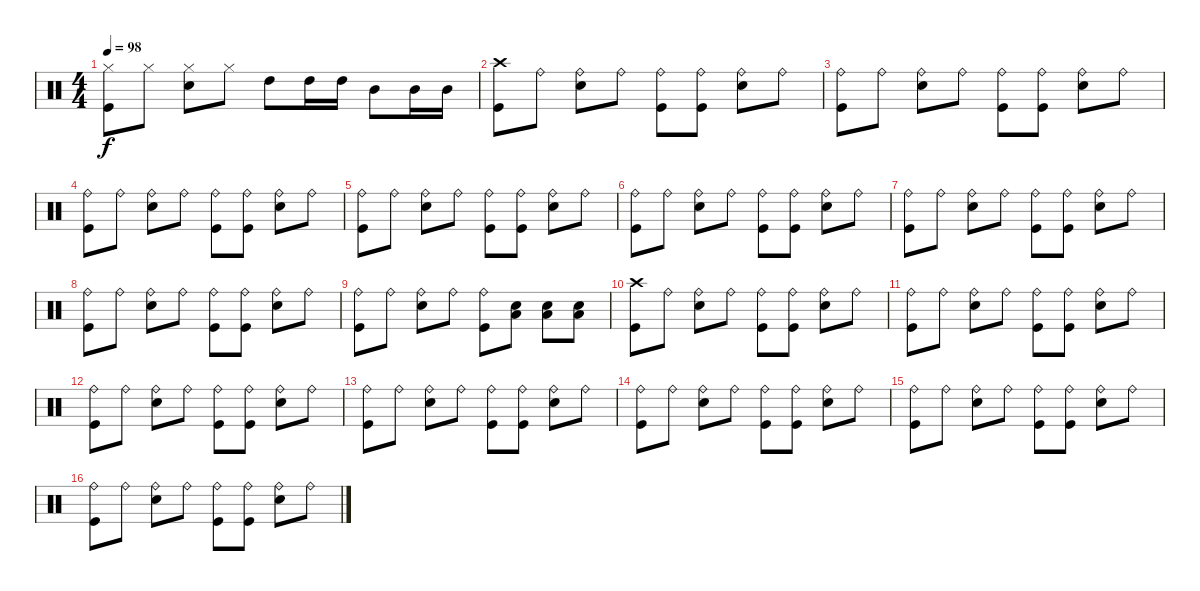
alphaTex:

\track "" {instrument percussion}
\staff {score}
\articulation defaults
\ts (4 4)
\tempo 98
\clef neutral
\ks c
("Hi-Hat (closed)" "Kick (hit)").8{dy f} "Hi-Hat (closed)".8 ("Hi-Hat (closed)" "Snare (hit) 2").8 "Hi-Hat (closed)".8 "High Tom (hit)".8 "High Tom (hit)".16 "High Tom (hit)".16 "Mid Tom (hit)".8 "Mid Tom (hit)".16 "Mid Tom (hit)".16 |
("Crash high (hit)" "Kick (hit)").8 "Ride (bell)".8 ("Ride (bell)" "Snare (hit) 2").8 "Ride (bell)".8 ("Ride (bell)" "Kick (hit)").8 ("Ride (bell)" "Kick (hit)").8 ("Ride (bell)" "Snare (hit) 2").8 "Ride (bell)".8 |
("Ride (bell)" "Kick (hit)").8 "Ride (bell)".8 ("Ride (bell)" "Snare (hit) 2").8 "Ride (bell)".8 ("Ride (bell)" "Kick (hit)").8 ("Ride (bell)" "Kick (hit)").8 ("Ride (bell)" "Snare (hit) 2").8 "Ride (bell)".8 |
("Ride (bell)" "Kick (hit)").8 "Ride (bell)".8 ("Ride (bell)" "Snare (hit) 2").8 "Ride (bell)".8 ("Ride (bell)" "Kick (hit)").8 ("Ride (bell)" "Kick (hit)").8 ("Ride (bell)" "Snare (hit) 2").8 "Ride (bell)".8 |
("Ride (bell)" "Kick (hit)").8 "Ride (bell)".8 ("Ride (bell)" "Snare (hit) 2").8 "Ride (bell)".8 ("Ride (bell)" "Kick (hit)").8 ("Ride (bell)" "Kick (hit)").8 ("Ride (bell)" "Snare (hit) 2").8 "Ride (bell)".8 |
("Ride (bell)" "Kick (hit)").8 "Ride (bell)".8 ("Ride (bell)" "Snare (hit) 2").8 "Ride (bell)".8 ("Ride (bell)" "Kick (hit)").8 ("Ride (bell)" "Kick (hit)").8 ("Ride (bell)" "Snare (hit) 2").8 "Ride (bell)".8 |
("Ride (bell)" "Kick (hit)").8 "Ride (bell)".8 ("Ride (bell)" "Snare (hit) 2").8 "Ride (bell)".8 ("Ride (bell)" "Kick (hit)").8 ("Ride (bell)" "Kick (hit)").8 ("Ride (bell)" "Snare (hit) 2").8 "Ride (bell)".8 |
("Ride (bell)" "Kick (hit)").8 "Ride (bell)".8 ("Ride (bell)" "Snare (hit) 2").8 "Ride (bell)".8 ("Ride (bell)" "Kick (hit)").8 ("Ride (bell)" "Kick (hit)").8 ("Ride (bell)" "Snare (hit) 2").8 "Ride (bell)".8 |
("Ride (bell)" "Kick (hit)").8 "Ride (bell)".8 ("Ride (bell)" "Snare (hit) 2").8 "Ride (bell)".8 ("Ride (bell)" "Kick (hit)").8 ("Low Tom (hit)" "Snare (hit) 2").8 ("Low Tom (hit)" "Snare (hit) 2").8 ("Low Tom (hit)" "Snare (hit) 2").8 |
("Crash high (hit)" "Kick (hit)").8 "Ride (bell)".8 ("Ride (bell)" "Snare (hit) 2").8 "Ride (bell)".8 ("Ride (bell)" "Kick (hit)").8 ("Ride (bell)" "Kick (hit)").8 ("Ride (bell)" "Snare (hit) 2").8 "Ride (bell)".8 |
("Ride (bell)" "Kick (hit)").8 "Ride (bell)".8 ("Ride (bell)" "Snare (hit) 2").8 "Ride (bell)".8 ("Ride (bell)" "Kick (hit)").8 ("Ride (bell)" "Kick (hit)").8 ("Ride (bell)" "Snare (hit) 2").8 "Ride (bell)".8 |
("Ride (bell)" "Kick (hit)").8 "Ride (bell)".8 ("Ride (bell)" "Snare (hit) 2").8 "Ride (bell)".8 ("Ride (bell)" "Kick (hit)").8 ("Ride (bell)" "Kick (hit)").8 ("Ride (bell)" "Snare (hit) 2").8 "Ride (bell)".8 |
("Ride (bell)" "Kick (hit)").8 "Ride (bell)".8 ("Ride (bell)" "Snare (hit) 2").8 "Ride (bell)".8 ("Ride (bell)" "Kick (hit)").8 ("Ride (bell)" "Kick (hit)").8 ("Ride (bell)" "Snare (hit) 2").8 "Ride (bell)".8 |
("Ride (bell)" "Kick (hit)").8 "Ride (bell)".8 ("Ride (bell)" "Snare (hit) 2").8 "Ride (bell)".8 ("Ride (bell)" "Kick (hit)").8 ("Ride (bell)" "Kick (hit)").8 ("Ride (bell)" "Snare (hit) 2").8 "Ride (bell)".8 |
("Ride (bell)" "Kick (hit)").8 "Ride (bell)".8 ("Ride (bell)" "Snare (hit) 2").8 "Ride (bell)".8 ("Ride (bell)" "Kick (hit)").8 ("Ride (bell)" "Kick (hit)").8 ("Ride (bell)" "Snare (hit) 2").8 "Ride (bell)".8 |
("Ride (bell)" "Kick (hit)").8 "Ride (bell)".8 ("Ride (bell)" "Snare (hit) 2").8 "Ride (bell)".8 ("Ride (bell)" "Kick (hit)").8 ("Ride (bell)" "Kick (hit)").8 ("Ride (bell)" "Snare (hit) 2").8 "Ride (bell)".8
